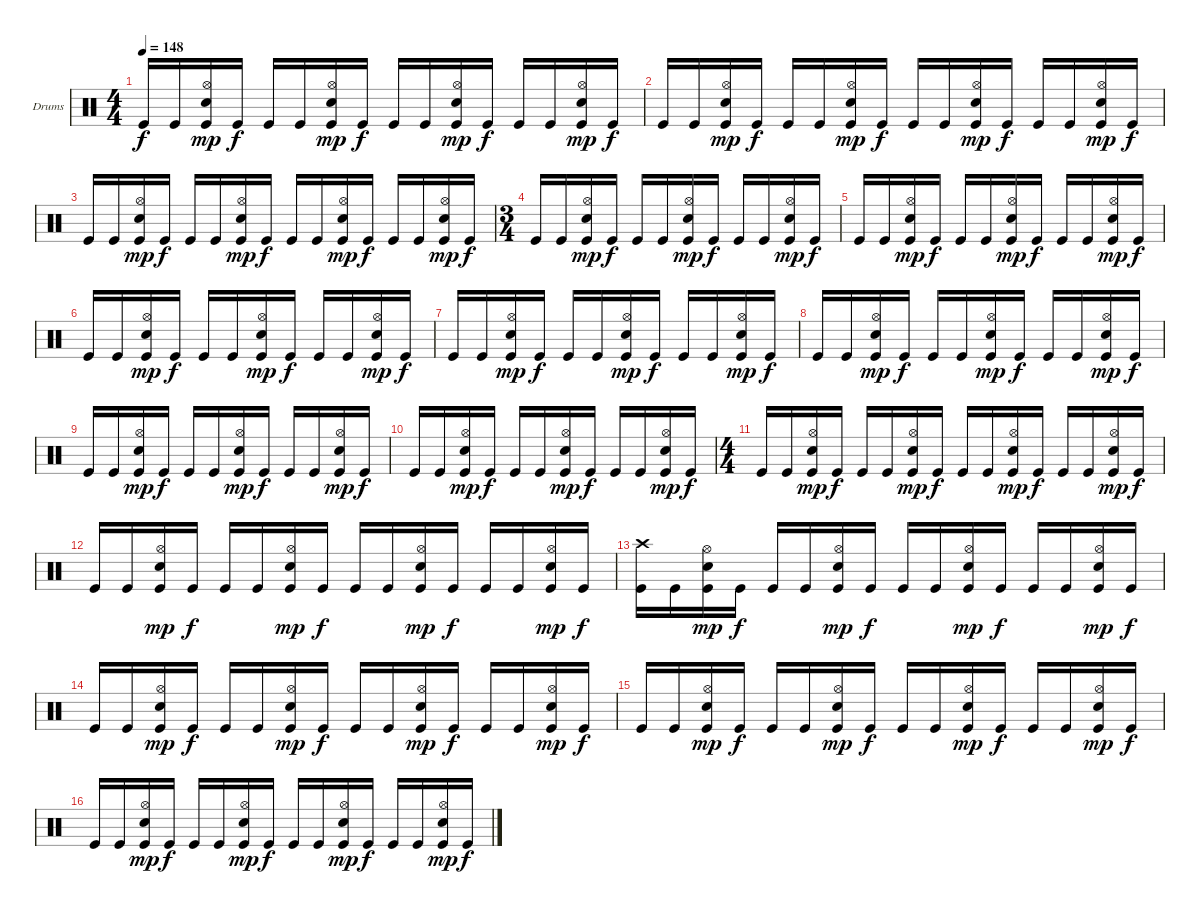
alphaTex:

\bracketExtendMode groupsimilarinstruments
\firstSystemTrackNameOrientation horizontal
\otherSystemsTrackNameOrientation horizontal
\track ("Drumkit" "Drums") {instrument percussion}
\staff {score}
\articulation defaults
\ts (4 4)
\tempo 148
\clef neutral
\ks c "Kick (hit)".16{dy f} "Kick (hit)".16
("Hi-Hat (open)" "Kick (hit)" "Snare (hit) 2").16{dy mp} "Kick (hit)".16{dy f} "Kick (hit)".16 "Kick (hit)".16 ("Hi-Hat (open)" "Kick (hit)" "Snare (hit) 2").16{dy mp} "Kick (hit)".16{dy f} "Kick (hit)".16 "Kick (hit)".16 ("Hi-Hat (open)" "Kick (hit)" "Snare (hit) 2").16{dy mp} "Kick (hit)".16{dy f} "Kick (hit)".16 "Kick (hit)".16 ("Hi-Hat (open)" "Kick (hit)" "Snare (hit) 2").16{dy mp} "Kick (hit)".16{dy f} |
"Kick (hit)".16 "Kick (hit)".16 ("Hi-Hat (open)" "Kick (hit)" "Snare (hit) 2").16{dy mp} "Kick (hit)".16{dy f} "Kick (hit)".16 "Kick (hit)".16 ("Hi-Hat (open)" "Kick (hit)" "Snare (hit) 2").16{dy mp} "Kick (hit)".16{dy f} "Kick (hit)".16 "Kick (hit)".16 ("Hi-Hat (open)" "Kick (hit)" "Snare (hit) 2").16{dy mp} "Kick (hit)".16{dy f} "Kick (hit)".16 "Kick (hit)".16 ("Hi-Hat (open)" "Kick (hit)" "Snare (hit) 2").16{dy mp} "Kick (hit)".16{dy f} |
"Kick (hit)".16 "Kick (hit)".16 ("Hi-Hat (open)" "Kick (hit)" "Snare (hit) 2").16{dy mp} "Kick (hit)".16{dy f} "Kick (hit)".16 "Kick (hit)".16 ("Hi-Hat (open)" "Kick (hit)" "Snare (hit) 2").16{dy mp} "Kick (hit)".16{dy f} "Kick (hit)".16 "Kick (hit)".16 ("Hi-Hat (open)" "Kick (hit)" "Snare (hit) 2").16{dy mp} "Kick (hit)".16{dy f} "Kick (hit)".16 "Kick (hit)".16 ("Hi-Hat (open)" "Kick (hit)" "Snare (hit) 2").16{dy mp} "Kick (hit)".16{dy f} |
\ts (3 4)
\beaming (8 2 2 2)
"Kick (hit)".16 "Kick (hit)".16 ("Hi-Hat (open)" "Kick (hit)" "Snare (hit) 2").16{dy mp} "Kick (hit)".16{dy f} "Kick (hit)".16 "Kick (hit)".16 ("Hi-Hat (open)" "Kick (hit)" "Snare (hit) 2").16{dy mp} "Kick (hit)".16{dy f} "Kick (hit)".16 "Kick (hit)".16 ("Hi-Hat (open)" "Kick (hit)" "Snare (hit) 2").16{dy mp} "Kick (hit)".16{dy f} |
"Kick (hit)".16 "Kick (hit)".16 ("Hi-Hat (open)" "Kick (hit)" "Snare (hit) 2").16{dy mp} "Kick (hit)".16{dy f} "Kick (hit)".16 "Kick (hit)".16 ("Hi-Hat (open)" "Kick (hit)" "Snare (hit) 2").16{dy mp} "Kick (hit)".16{dy f} "Kick (hit)".16 "Kick (hit)".16 ("Hi-Hat (open)" "Kick (hit)" "Snare (hit) 2").16{dy mp} "Kick (hit)".16{dy f} |
"Kick (hit)".16 "Kick (hit)".16 ("Hi-Hat (open)" "Kick (hit)" "Snare (hit) 2").16{dy mp} "Kick (hit)".16{dy f} "Kick (hit)".16 "Kick (hit)".16 ("Hi-Hat (open)" "Kick (hit)" "Snare (hit) 2").16{dy mp} "Kick (hit)".16{dy f} "Kick (hit)".16 "Kick (hit)".16 ("Hi-Hat (open)" "Kick (hit)" "Snare (hit) 2").16{dy mp} "Kick (hit)".16{dy f} |
"Kick (hit)".16 "Kick (hit)".16 ("Hi-Hat (open)" "Kick (hit)" "Snare (hit) 2").16{dy mp} "Kick (hit)".16{dy f} "Kick (hit)".16 "Kick (hit)".16 ("Hi-Hat (open)" "Kick (hit)" "Snare (hit) 2").16{dy mp} "Kick (hit)".16{dy f} "Kick (hit)".16 "Kick (hit)".16 ("Hi-Hat (open)" "Kick (hit)" "Snare (hit) 2").16{dy mp} "Kick (hit)".16{dy f} |
"Kick (hit)".16 "Kick (hit)".16 ("Hi-Hat (open)" "Kick (hit)" "Snare (hit) 2").16{dy mp} "Kick (hit)".16{dy f} "Kick (hit)".16 "Kick (hit)".16 ("Hi-Hat (open)" "Kick (hit)" "Snare (hit) 2").16{dy mp} "Kick (hit)".16{dy f} "Kick (hit)".16 "Kick (hit)".16 ("Hi-Hat (open)" "Kick (hit)" "Snare (hit) 2").16{dy mp} "Kick (hit)".16{dy f} |
"Kick (hit)".16 "Kick (hit)".16 ("Hi-Hat (open)" "Kick (hit)" "Snare (hit) 2").16{dy mp} "Kick (hit)".16{dy f} "Kick (hit)".16 "Kick (hit)".16 ("Hi-Hat (open)" "Kick (hit)" "Snare (hit) 2").16{dy mp} "Kick (hit)".16{dy f} "Kick (hit)".16 "Kick (hit)".16 ("Hi-Hat (open)" "Kick (hit)" "Snare (hit) 2").16{dy mp} "Kick (hit)".16{dy f} |
"Kick (hit)".16 "Kick (hit)".16 ("Hi-Hat (open)" "Kick (hit)" "Snare (hit) 2").16{dy mp} "Kick (hit)".16{dy f} "Kick (hit)".16 "Kick (hit)".16 ("Hi-Hat (open)" "Kick (hit)" "Snare (hit) 2").16{dy mp} "Kick (hit)".16{dy f} "Kick (hit)".16 "Kick (hit)".16 ("Hi-Hat (open)" "Kick (hit)" "Snare (hit) 2").16{dy mp} "Kick (hit)".16{dy f} |
\ts (4 4)
\beaming (8 2 2 2 2)
"Kick (hit)".16 "Kick (hit)".16 ("Hi-Hat (open)" "Kick (hit)" "Snare (hit) 2").16{dy mp} "Kick (hit)".16{dy f} "Kick (hit)".16 "Kick (hit)".16 ("Hi-Hat (open)" "Kick (hit)" "Snare (hit) 2").16{dy mp} "Kick (hit)".16{dy f} "Kick (hit)".16 "Kick (hit)".16 ("Hi-Hat (open)" "Kick (hit)" "Snare (hit) 2").16{dy mp} "Kick (hit)".16{dy f} "Kick (hit)".16 "Kick (hit)".16 ("Hi-Hat (open)" "Kick (hit)" "Snare (hit) 2").16{dy mp} "Kick (hit)".16{dy f} |
"Kick (hit)".16 "Kick (hit)".16 ("Hi-Hat (open)" "Kick (hit)" "Snare (hit) 2").16{dy mp} "Kick (hit)".16{dy f} "Kick (hit)".16 "Kick (hit)".16 ("Hi-Hat (open)" "Kick (hit)" "Snare (hit) 2").16{dy mp} "Kick (hit)".16{dy f} "Kick (hit)".16 "Kick (hit)".16 ("Hi-Hat (open)" "Kick (hit)" "Snare (hit) 2").16{dy mp} "Kick (hit)".16{dy f} "Kick (hit)".16 "Kick (hit)".16 ("Hi-Hat (open)" "Kick (hit)" "Snare (hit) 2").16{dy mp} "Kick (hit)".16{dy f} |
("Crash high (hit)" "Kick (hit)").16 "Kick (hit)".16 ("Hi-Hat (open)" "Kick (hit)" "Snare (hit) 2").16{dy mp} "Kick (hit)".16{dy f} "Kick (hit)".16 "Kick (hit)".16 ("Hi-Hat (open)" "Kick (hit)" "Snare (hit) 2").16{dy mp} "Kick (hit)".16{dy f} "Kick (hit)".16 "Kick (hit)".16 ("Hi-Hat (open)" "Kick (hit)" "Snare (hit) 2").16{dy mp} "Kick (hit)".16{dy f} "Kick (hit)".16 "Kick (hit)".16 ("Hi-Hat (open)" "Kick (hit)" "Snare (hit) 2").16{dy mp} "Kick (hit)".16{dy f} |
"Kick (hit)".16 "Kick (hit)".16 ("Hi-Hat (open)" "Kick (hit)" "Snare (hit) 2").16{dy mp} "Kick (hit)".16{dy f} "Kick (hit)".16 "Kick (hit)".16 ("Hi-Hat (open)" "Kick (hit)" "Snare (hit) 2").16{dy mp} "Kick (hit)".16{dy f} "Kick (hit)".16 "Kick (hit)".16 ("Hi-Hat (open)" "Kick (hit)" "Snare (hit) 2").16{dy mp} "Kick (hit)".16{dy f} "Kick (hit)".16 "Kick (hit)".16 ("Hi-Hat (open)" "Kick (hit)" "Snare (hit) 2").16{dy mp} "Kick (hit)".16{dy f} |
"Kick (hit)".16 "Kick (hit)".16 ("Hi-Hat (open)" "Kick (hit)" "Snare (hit) 2").16{dy mp} "Kick (hit)".16{dy f} "Kick (hit)".16 "Kick (hit)".16 ("Hi-Hat (open)" "Kick (hit)" "Snare (hit) 2").16{dy mp} "Kick (hit)".16{dy f} "Kick (hit)".16 "Kick (hit)".16 ("Hi-Hat (open)" "Kick (hit)" "Snare (hit) 2").16{dy mp} "Kick (hit)".16{dy f} "Kick (hit)".16 "Kick (hit)".16 ("Hi-Hat (open)" "Kick (hit)" "Snare (hit) 2").16{dy mp} "Kick (hit)".16{dy f} |
"Kick (hit)".16 "Kick (hit)".16 ("Hi-Hat (open)" "Kick (hit)" "Snare (hit) 2").16{dy mp} "Kick (hit)".16{dy f} "Kick (hit)".16 "Kick (hit)".16 ("Hi-Hat (open)" "Kick (hit)" "Snare (hit) 2").16{dy mp} "Kick (hit)".16{dy f} "Kick (hit)".16 "Kick (hit)".16 ("Hi-Hat (open)" "Kick (hit)" "Snare (hit) 2").16{dy mp} "Kick (hit)".16{dy f} "Kick (hit)".16 "Kick (hit)".16 ("Hi-Hat (open)" "Kick (hit)" "Snare (hit) 2").16{dy mp} "Kick (hit)".16{dy f}
